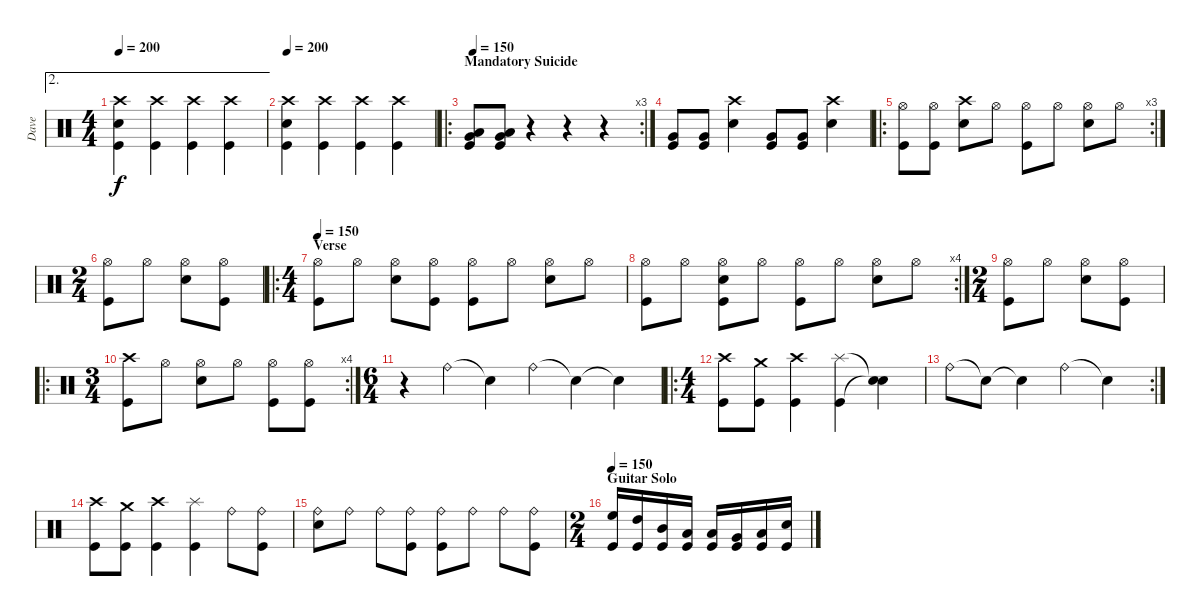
\track ("Dave" "Dave") {instrument percussion}
\staff {score}
\articulation defaults
\ae 2
\ts (4 4)
\tempo 200
\clef neutral
\ks c
("Crash high (hit)" "Snare (hit) 2" "Kick (hit)").4{dy f} ("Crash high (hit)" "Kick (hit)").4 ("Crash high (hit)" "Kick (hit)").4 ("Crash high (hit)" "Kick (hit)").4 |
\tempo 200
("Crash high (hit)" "Snare (hit) 2" "Kick (hit)").4 ("Crash high (hit)" "Kick (hit)").4 ("Crash high (hit)" "Kick (hit)").4 ("Crash high (hit)" "Kick (hit)").4 |
\ro
\rc 3
\section ("" "Mandatory Suicide")
\tempo 150
("Low Tom (hit)" "Very Low Tom (hit)" "Kick (hit)").8 ("Low Tom (hit)" "Very Low Tom (hit)" "Kick (hit)").8 r.4 r.4 r.4 |
("Very Low Tom (hit)" "Kick (hit)").8 ("Very Low Tom (hit)" "Kick (hit)").8 ("Crash high (hit)" "Snare (hit) 2").4 ("Very Low Tom (hit)" "Kick (hit)").8 ("Very Low Tom (hit)" "Kick (hit)").8 ("Crash high (hit)" "Snare (hit) 2").4 |
\ro
\rc 3
("Hi-Hat (open)" "Kick (hit)").8 ("Hi-Hat (open)" "Kick (hit)").8 ("Crash high (hit)" "Snare (hit) 2").8 "Hi-Hat (open)".8 ("Hi-Hat (open)" "Kick (hit)").8 "Hi-Hat (open)".8 ("Hi-Hat (open)" "Snare (hit) 2").8 "Hi-Hat (open)".8 |
\ts (2 4)
("Hi-Hat (open)" "Kick (hit)").8 "Hi-Hat (open)".8 ("Hi-Hat (open)" "Snare (hit) 2").8 ("Hi-Hat (open)" "Kick (hit)").8 |
\ro
\ts (4 4)
\section ("" "Verse")
\tempo 150
("Hi-Hat (open)" "Kick (hit)").8 "Hi-Hat (open)".8 ("Hi-Hat (open)" "Snare (hit) 2").8 ("Hi-Hat (open)" "Kick (hit)").8 ("Hi-Hat (open)" "Kick (hit)").8 "Hi-Hat (open)".8 ("Hi-Hat (open)" "Snare (hit) 2").8 "Hi-Hat (open)".8 |
\rc 4
("Hi-Hat (open)" "Kick (hit)").8 "Hi-Hat (open)".8 ("Hi-Hat (open)" "Snare (hit) 2" "Kick (hit)").8 "Hi-Hat (open)".8 ("Hi-Hat (open)" "Kick (hit)").8 "Hi-Hat (open)".8 ("Hi-Hat (open)" "Snare (hit) 2").8 "Hi-Hat (open)".8 |
\ts (2 4)
("Hi-Hat (open)" "Kick (hit)").8 "Hi-Hat (open)".8 ("Hi-Hat (open)" "Snare (hit) 2").8 ("Hi-Hat (open)" "Kick (hit)").8 |
\ro
\rc 4
\ts (3 4)
("Crash high (hit)" "Kick (hit)").8 "Hi-Hat (open)".8 ("Hi-Hat (open)" "Snare (hit) 2").8 "Hi-Hat (open)".8 ("Hi-Hat (open)" "Kick (hit)").8 ("Hi-Hat (open)" "Kick (hit)").8 |
\ts (6 4)
r.4 "Ride (bell)".4 "Snare (hit)"{t}.4 "Ride (bell)".4 "Snare (hit)"{t}.4 "Snare (hit)"{t}.4 |
\ro
\ts (4 4)
("Crash high (hit)" "Kick (hit)").8 ("Crash medium (hit)" "Kick (hit)").8 ("Crash high (hit)" "Kick (hit)").4 ("Splash (hit)" "Kick (hit)").4 ("Snare (hit)"{t} "Snare (hit)"{t}).4 |
\rc 2 "Ride (bell)".8 "Snare (hit)"{t}.8 "Snare (hit)"{t}.4 "Ride (bell)".4 "Snare (hit)"{t}.4
|
("Crash high (hit)" "Kick (hit)").8 ("Crash medium (hit)" "Kick (hit)").8 ("Crash high (hit)" "Kick (hit)").4 ("Splash (hit)" "Kick (hit)").4 "Ride (bell)".8 ("Ride (bell)" "Kick (hit)").8 |
("Ride (bell)" "Snare (hit) 2").8 "Ride (bell)".8 "Ride (bell)".8 ("Ride (bell)" "Kick (hit)").8 ("Ride (bell)" "Kick (hit)").8 "Ride (bell)".8 "Ride (bell)".8 ("Ride (bell)" "Kick (hit)").8 |
\ts (2 4)
\section ("" "Guitar Solo")
\tempo 150
("High Floor Tom (hit)" "Kick (hit)").16 ("High Tom (hit)" "Kick (hit)").16 ("Mid Tom (hit)" "Kick (hit)").16 ("Low Tom (hit)" "Kick (hit)").16 ("Low Tom (hit)" "Kick (hit)").16 ("Very Low Tom (hit)" "Kick (hit)").16 ("Low Floor Tom (hit)" "Kick (hit)").16 ("Snare (hit) 2" "Kick (hit)").16
